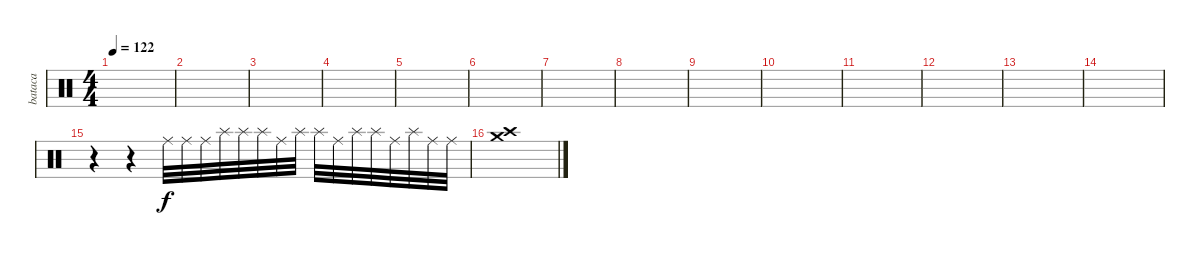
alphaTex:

\track ("bataca" "bataca") {instrument percussion}
\staff {score}
\articulation defaults
\ts (4 4)
\tempo 122
\clef neutral
\ks c
|
|
|
|
|
|
|
|
|
|
|
|
|
|
r.4 r.4 "Ride (middle)".32{volume 6} "Ride (middle)".32 "Ride (middle)".32 "Splash (hit)".32 "Splash (hit)".32 "Splash (hit)".32{volume 9} "Ride (middle)".32 "Splash (hit)".32 "Splash (hit)".32 "Ride (middle)".32 "Splash (hit)".32 "Splash (hit)".32{volume 11} "Ride (middle)".32 "Splash (hit)".32 "Ride (middle)".32 "Ride (middle)".32 |
("Crash high (hit)" "Crash medium (hit)").1{volume 10}
